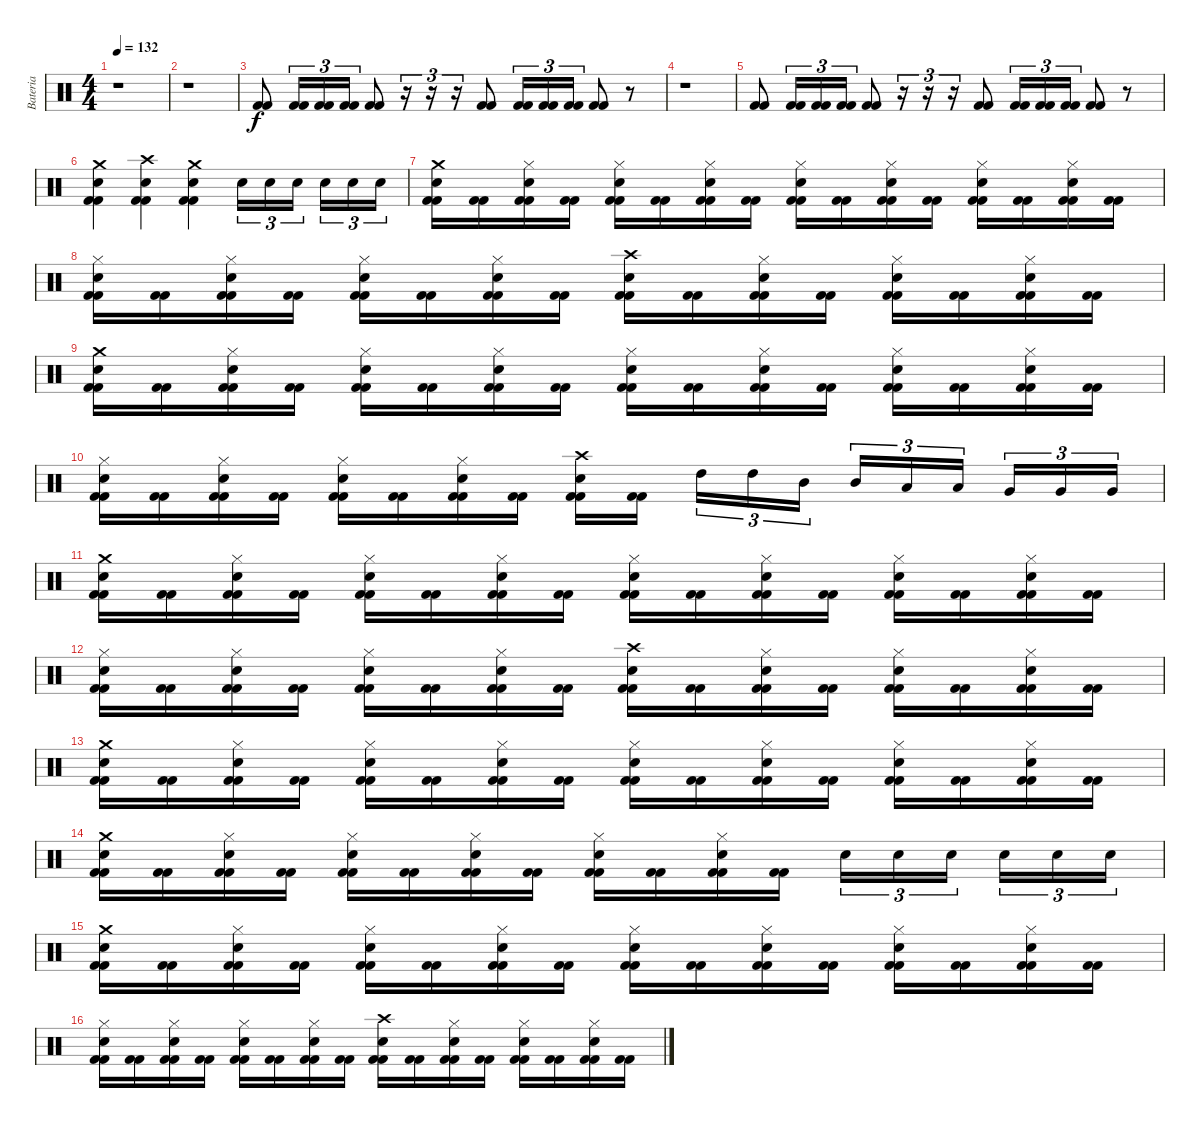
\track ("Bateria" "Bateria") {instrument percussion}
\staff {score}
\articulation defaults
\ts (4 4)
\tempo 132
\clef neutral
\ks c
r.1{dy f} |
r.1 |
("Kick (hit) 2" "Kick (hit) 2").8 ("Kick (hit) 2" "Kick (hit) 2").16{tu (3 2)} ("Kick (hit) 2" "Kick (hit) 2").16{tu (3 2)} ("Kick (hit) 2" "Kick (hit) 2").16{tu (3 2)} ("Kick (hit) 2" "Kick (hit) 2").8 r.16{tu (3 2)} r.16{tu (3 2)} r.16{tu (3 2)} ("Kick (hit) 2" "Kick (hit) 2").8 ("Kick (hit) 2" "Kick (hit) 2").16{tu (3 2)} ("Kick (hit) 2" "Kick (hit) 2").16{tu (3 2)} ("Kick (hit) 2" "Kick (hit) 2").16{tu (3 2)} ("Kick (hit) 2" "Kick (hit) 2").8 r.8 |
r.1 |
("Kick (hit) 2" "Kick (hit) 2").8 ("Kick (hit) 2" "Kick (hit) 2").16{tu (3 2)} ("Kick (hit) 2" "Kick (hit) 2").16{tu (3 2)} ("Kick (hit) 2" "Kick (hit) 2").16{tu (3 2)} ("Kick (hit) 2" "Kick (hit) 2").8 r.16{tu (3 2)} r.16{tu (3 2)} r.16{tu (3 2)} ("Kick (hit) 2" "Kick (hit) 2").8 ("Kick (hit) 2" "Kick (hit) 2").16{tu (3 2)} ("Kick (hit) 2" "Kick (hit) 2").16{tu (3 2)} ("Kick (hit) 2" "Kick (hit) 2").16{tu (3 2)} ("Kick (hit) 2" "Kick (hit) 2").8 r.8 |
("Kick (hit) 2" "Kick (hit) 2" "Snare (hit) 2" "Crash medium (hit)").4 ("Kick (hit) 2" "Kick (hit) 2" "Snare (hit) 2" "Crash high (hit)").4 ("Kick (hit) 2" "Kick (hit) 2" "Snare (hit) 2" "Crash medium (hit)").4 "Snare (hit) 2".16{tu (3 2)} "Snare (hit) 2".16{tu (3 2)} "Snare (hit) 2".16{tu (3 2)} "Snare (hit) 2".16{tu (3 2)} "Snare (hit) 2".16{tu (3 2)} "Snare (hit) 2".16{tu (3 2)} |
("Kick (hit) 2" "Kick (hit) 2" "Snare (hit) 2" "Crash medium (hit)").16 ("Kick (hit) 2" "Kick (hit) 2").16 ("Kick (hit) 2" "Kick (hit) 2" "Snare (hit) 2" "Hi-Hat (closed)").16 ("Kick (hit) 2" "Kick (hit) 2").16 ("Kick (hit) 2" "Kick (hit) 2" "Snare (hit) 2" "Hi-Hat (closed)").16 ("Kick (hit) 2" "Kick (hit) 2").16 ("Kick (hit) 2" "Kick (hit) 2" "Snare (hit) 2" "Hi-Hat (closed)").16 ("Kick (hit) 2" "Kick (hit) 2").16 ("Kick (hit) 2" "Kick (hit) 2" "Snare (hit) 2" "Hi-Hat (closed)").16 ("Kick (hit) 2" "Kick (hit) 2").16 ("Kick (hit) 2" "Kick (hit) 2" "Snare (hit) 2" "Hi-Hat (closed)").16 ("Kick (hit) 2" "Kick (hit) 2").16 ("Kick (hit) 2" "Kick (hit) 2" "Snare (hit) 2" "Hi-Hat (closed)").16 ("Kick (hit) 2" "Kick (hit) 2").16 ("Kick (hit) 2" "Kick (hit) 2" "Snare (hit) 2" "Hi-Hat (closed)").16 ("Kick (hit) 2" "Kick (hit) 2").16 |
("Kick (hit) 2" "Kick (hit) 2" "Snare (hit) 2" "Hi-Hat (closed)").16 ("Kick (hit) 2" "Kick (hit) 2").16 ("Kick (hit) 2" "Kick (hit) 2" "Snare (hit) 2" "Hi-Hat (closed)").16 ("Kick (hit) 2" "Kick (hit) 2").16 ("Kick (hit) 2" "Kick (hit) 2" "Snare (hit) 2" "Hi-Hat (closed)").16 ("Kick (hit) 2" "Kick (hit) 2").16 ("Kick (hit) 2" "Kick (hit) 2" "Snare (hit) 2" "Hi-Hat (closed)").16 ("Kick (hit) 2" "Kick (hit) 2").16 ("Kick (hit) 2" "Kick (hit) 2" "Snare (hit) 2" "Crash high (hit)").16 ("Kick (hit) 2" "Kick (hit) 2").16 ("Kick (hit) 2" "Kick (hit) 2" "Snare (hit) 2" "Hi-Hat (closed)").16 ("Kick (hit) 2" "Kick (hit) 2").16 ("Kick (hit) 2" "Kick (hit) 2" "Snare (hit) 2" "Hi-Hat (closed)").16 ("Kick (hit) 2" "Kick (hit) 2").16 ("Kick (hit) 2" "Kick (hit) 2" "Snare (hit) 2" "Hi-Hat (closed)").16 ("Kick (hit) 2" "Kick (hit) 2").16 |
("Kick (hit) 2" "Kick (hit) 2" "Snare (hit) 2" "Crash medium (hit)").16 ("Kick (hit) 2" "Kick (hit) 2").16 ("Kick (hit) 2" "Kick (hit) 2" "Snare (hit) 2" "Hi-Hat (closed)").16 ("Kick (hit) 2" "Kick (hit) 2").16 ("Kick (hit) 2" "Kick (hit) 2" "Snare (hit) 2" "Hi-Hat (closed)").16 ("Kick (hit) 2" "Kick (hit) 2").16 ("Kick (hit) 2" "Kick (hit) 2" "Snare (hit) 2" "Hi-Hat (closed)").16 ("Kick (hit) 2" "Kick (hit) 2").16 ("Kick (hit) 2" "Kick (hit) 2" "Snare (hit) 2" "Hi-Hat (closed)").16 ("Kick (hit) 2" "Kick (hit) 2").16 ("Kick (hit) 2" "Kick (hit) 2" "Snare (hit) 2" "Hi-Hat (closed)").16 ("Kick (hit) 2" "Kick (hit) 2").16 ("Kick (hit) 2" "Kick (hit) 2" "Snare (hit) 2" "Hi-Hat (closed)").16 ("Kick (hit) 2" "Kick (hit) 2").16 ("Kick (hit) 2" "Kick (hit) 2" "Snare (hit) 2" "Hi-Hat (closed)").16 ("Kick (hit) 2" "Kick (hit) 2").16 |
("Kick (hit) 2" "Kick (hit) 2" "Snare (hit) 2" "Hi-Hat (closed)").16 ("Kick (hit) 2" "Kick (hit) 2").16 ("Kick (hit) 2" "Kick (hit) 2" "Snare (hit) 2" "Hi-Hat (closed)").16 ("Kick (hit) 2" "Kick (hit) 2").16 ("Kick (hit) 2" "Kick (hit) 2" "Snare (hit) 2" "Hi-Hat (closed)").16 ("Kick (hit) 2" "Kick (hit) 2").16 ("Kick (hit) 2" "Kick (hit) 2" "Snare (hit) 2" "Hi-Hat (closed)").16 ("Kick (hit) 2" "Kick (hit) 2").16 ("Kick (hit) 2" "Kick (hit) 2" "Snare (hit) 2" "Crash high (hit)").16 ("Kick (hit) 2" "Kick (hit) 2").16 "High Tom (hit)".16{tu (3 2)} "High Tom (hit)".16{tu (3 2)} "Mid Tom (hit)".16{tu (3 2)} "Mid Tom (hit)".16{tu (3 2)} "Low Tom (hit)".16{tu (3 2)} "Low Tom (hit)".16{tu (3 2)} "Very Low Tom (hit)".16{tu (3 2)} "Very Low Tom (hit)".16{tu (3 2)} "Very Low Tom (hit)".16{tu (3 2)} |
("Kick (hit) 2" "Kick (hit) 2" "Snare (hit) 2" "Crash medium (hit)").16 ("Kick (hit) 2" "Kick (hit) 2").16 ("Kick (hit) 2" "Kick (hit) 2" "Snare (hit) 2" "Hi-Hat (closed)").16 ("Kick (hit) 2" "Kick (hit) 2").16 ("Kick (hit) 2" "Kick (hit) 2" "Snare (hit) 2" "Hi-Hat (closed)").16 ("Kick (hit) 2" "Kick (hit) 2").16 ("Kick (hit) 2" "Kick (hit) 2" "Snare (hit) 2" "Hi-Hat (closed)").16 ("Kick (hit) 2" "Kick (hit) 2").16 ("Kick (hit) 2" "Kick (hit) 2" "Snare (hit) 2" "Hi-Hat (closed)").16 ("Kick (hit) 2" "Kick (hit) 2").16 ("Kick (hit) 2" "Kick (hit) 2" "Snare (hit) 2" "Hi-Hat (closed)").16 ("Kick (hit) 2" "Kick (hit) 2").16 ("Kick (hit) 2" "Kick (hit) 2" "Snare (hit) 2" "Hi-Hat (closed)").16 ("Kick (hit) 2" "Kick (hit) 2").16 ("Kick (hit) 2" "Kick (hit) 2" "Snare (hit) 2" "Hi-Hat (closed)").16 ("Kick (hit) 2" "Kick (hit) 2").16 |
("Kick (hit) 2" "Kick (hit) 2" "Snare (hit) 2" "Hi-Hat (closed)").16 ("Kick (hit) 2" "Kick (hit) 2").16 ("Kick (hit) 2" "Kick (hit) 2" "Snare (hit) 2" "Hi-Hat (closed)").16 ("Kick (hit) 2" "Kick (hit) 2").16 ("Kick (hit) 2" "Kick (hit) 2" "Snare (hit) 2" "Hi-Hat (closed)").16 ("Kick (hit) 2" "Kick (hit) 2").16 ("Kick (hit) 2" "Kick (hit) 2" "Snare (hit) 2" "Hi-Hat (closed)").16 ("Kick (hit) 2" "Kick (hit) 2").16 ("Kick (hit) 2" "Kick (hit) 2" "Snare (hit) 2" "Crash high (hit)").16 ("Kick (hit) 2" "Kick (hit) 2").16 ("Kick (hit) 2" "Kick (hit) 2" "Snare (hit) 2" "Hi-Hat (closed)").16 ("Kick (hit) 2" "Kick (hit) 2").16 ("Kick (hit) 2" "Kick (hit) 2" "Snare (hit) 2" "Hi-Hat (closed)").16 ("Kick (hit) 2" "Kick (hit) 2").16 ("Kick (hit) 2" "Kick (hit) 2" "Snare (hit) 2" "Hi-Hat (closed)").16 ("Kick (hit) 2" "Kick (hit) 2").16 |
("Kick (hit) 2" "Kick (hit) 2" "Snare (hit) 2" "Crash medium (hit)").16 ("Kick (hit) 2" "Kick (hit) 2").16 ("Kick (hit) 2" "Kick (hit) 2" "Snare (hit) 2" "Hi-Hat (closed)").16 ("Kick (hit) 2" "Kick (hit) 2").16 ("Kick (hit) 2" "Kick (hit) 2" "Snare (hit) 2" "Hi-Hat (closed)").16 ("Kick (hit) 2" "Kick (hit) 2").16 ("Kick (hit) 2" "Kick (hit) 2" "Snare (hit) 2" "Hi-Hat (closed)").16 ("Kick (hit) 2" "Kick (hit) 2").16 ("Kick (hit) 2" "Kick (hit) 2" "Snare (hit) 2" "Hi-Hat (closed)").16 ("Kick (hit) 2" "Kick (hit) 2").16 ("Kick (hit) 2" "Kick (hit) 2" "Snare (hit) 2" "Hi-Hat (closed)").16 ("Kick (hit) 2" "Kick (hit) 2").16 ("Kick (hit) 2" "Kick (hit) 2" "Snare (hit) 2" "Hi-Hat (closed)").16 ("Kick (hit) 2" "Kick (hit) 2").16 ("Kick (hit) 2" "Kick (hit) 2" "Snare (hit) 2" "Hi-Hat (closed)").16 ("Kick (hit) 2" "Kick (hit) 2").16 |
("Kick (hit) 2" "Kick (hit) 2" "Snare (hit) 2" "Crash medium (hit)").16 ("Kick (hit) 2" "Kick (hit) 2").16 ("Kick (hit) 2" "Kick (hit) 2" "Snare (hit) 2" "Hi-Hat (closed)").16 ("Kick (hit) 2" "Kick (hit) 2").16 ("Kick (hit) 2" "Kick (hit) 2" "Snare (hit) 2" "Hi-Hat (closed)").16 ("Kick (hit) 2" "Kick (hit) 2").16 ("Kick (hit) 2" "Kick (hit) 2" "Snare (hit) 2" "Hi-Hat (closed)").16 ("Kick (hit) 2" "Kick (hit) 2").16 ("Kick (hit) 2" "Kick (hit) 2" "Snare (hit) 2" "Hi-Hat (closed)").16 ("Kick (hit) 2" "Kick (hit) 2").16 ("Kick (hit) 2" "Kick (hit) 2" "Snare (hit) 2" "Hi-Hat (closed)").16 ("Kick (hit) 2" "Kick (hit) 2").16 "Snare (hit) 2".16{tu (3 2)} "Snare (hit) 2".16{tu (3 2)} "Snare (hit) 2".16{tu (3 2)} "Snare (hit) 2".16{tu (3 2)} "Snare (hit) 2".16{tu (3 2)} "Snare (hit) 2".16{tu (3 2)} |
("Kick (hit) 2" "Kick (hit) 2" "Snare (hit) 2" "Crash medium (hit)").16 ("Kick (hit) 2" "Kick (hit) 2").16 ("Kick (hit) 2" "Kick (hit) 2" "Snare (hit) 2" "Hi-Hat (closed)").16 ("Kick (hit) 2" "Kick (hit) 2").16 ("Kick (hit) 2" "Kick (hit) 2" "Snare (hit) 2" "Hi-Hat (closed)").16 ("Kick (hit) 2" "Kick (hit) 2").16 ("Kick (hit) 2" "Kick (hit) 2" "Snare (hit) 2" "Hi-Hat (closed)").16 ("Kick (hit) 2" "Kick (hit) 2").16 ("Kick (hit) 2" "Kick (hit) 2" "Snare (hit) 2" "Hi-Hat (closed)").16 ("Kick (hit) 2" "Kick (hit) 2").16 ("Kick (hit) 2" "Kick (hit) 2" "Snare (hit) 2" "Hi-Hat (closed)").16 ("Kick (hit) 2" "Kick (hit) 2").16 ("Kick (hit) 2" "Kick (hit) 2" "Snare (hit) 2" "Hi-Hat (closed)").16 ("Kick (hit) 2" "Kick (hit) 2").16 ("Kick (hit) 2" "Kick (hit) 2" "Snare (hit) 2" "Hi-Hat (closed)").16 ("Kick (hit) 2" "Kick (hit) 2").16 |
("Kick (hit) 2" "Kick (hit) 2" "Snare (hit) 2" "Hi-Hat (closed)").16 ("Kick (hit) 2" "Kick (hit) 2").16 ("Kick (hit) 2" "Kick (hit) 2" "Snare (hit) 2" "Hi-Hat (closed)").16 ("Kick (hit) 2" "Kick (hit) 2").16 ("Kick (hit) 2" "Kick (hit) 2" "Snare (hit) 2" "Hi-Hat (closed)").16 ("Kick (hit) 2" "Kick (hit) 2").16 ("Kick (hit) 2" "Kick (hit) 2" "Snare (hit) 2" "Hi-Hat (closed)").16 ("Kick (hit) 2" "Kick (hit) 2").16 ("Kick (hit) 2" "Kick (hit) 2" "Snare (hit) 2" "Crash high (hit)").16 ("Kick (hit) 2" "Kick (hit) 2").16 ("Kick (hit) 2" "Kick (hit) 2" "Snare (hit) 2" "Hi-Hat (closed)").16 ("Kick (hit) 2" "Kick (hit) 2").16 ("Kick (hit) 2" "Kick (hit) 2" "Snare (hit) 2" "Hi-Hat (closed)").16 ("Kick (hit) 2" "Kick (hit) 2").16 ("Kick (hit) 2" "Kick (hit) 2" "Snare (hit) 2" "Hi-Hat (closed)").16 ("Kick (hit) 2" "Kick (hit) 2").16
